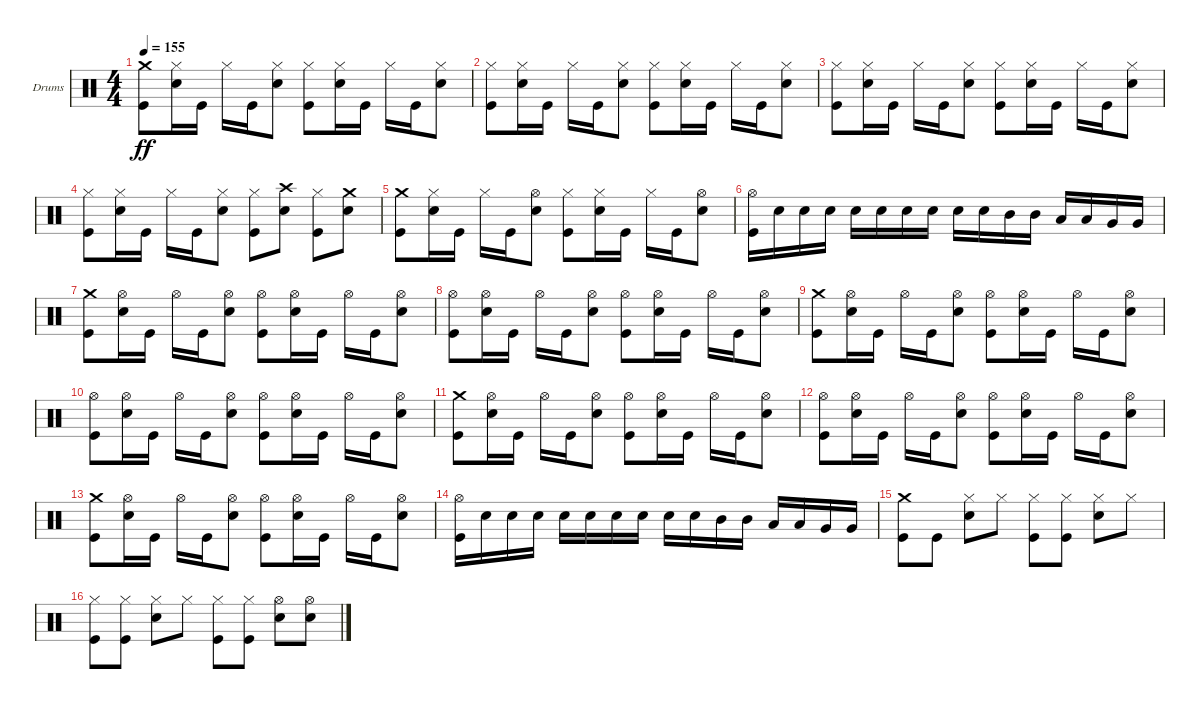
\defaultSystemsLayout 4
\bracketExtendMode groupsimilarinstruments
\firstSystemTrackNameOrientation horizontal
\otherSystemsTrackNameOrientation horizontal
\track ("Drums - Brandon Barnes" "Drums") {instrument percussion}
\staff {score}
\articulation defaults
\ts (4 4)
\tempo 155
\clef neutral
\scale
0.333333
\ks c
("Kick (hit)" "Crash medium (hit)").8{dy ff} ("Snare (hit) 2" "Hi-Hat (closed)").16 "Kick (hit)".16 "Hi-Hat (closed)".16 "Kick (hit)".16 ("Snare (hit) 2" "Hi-Hat (closed)").8 ("Kick (hit)" "Hi-Hat (closed)").8 ("Snare (hit) 2" "Hi-Hat (closed)").16 "Kick (hit)".16 "Hi-Hat (closed)".16 "Kick (hit)".16 ("Snare (hit) 2" "Hi-Hat (closed)").8 |
\scale
0.333333 ("Kick (hit)" "Hi-Hat (closed)").8 ("Snare (hit) 2" "Hi-Hat (closed)").16 "Kick (hit)".16 "Hi-Hat (closed)".16 "Kick (hit)".16 ("Snare (hit) 2" "Hi-Hat (closed)").8 ("Kick (hit)" "Hi-Hat (closed)").8 ("Snare (hit) 2" "Hi-Hat (closed)").16 "Kick (hit)".16 "Hi-Hat (closed)".16 "Kick (hit)".16 ("Snare (hit) 2" "Hi-Hat (closed)").8 |
\scale
0.333333 ("Kick (hit)" "Hi-Hat (closed)").8 ("Snare (hit) 2" "Hi-Hat (closed)").16 "Kick (hit)".16 "Hi-Hat (closed)".16 "Kick (hit)".16 ("Snare (hit) 2" "Hi-Hat (closed)").8 ("Kick (hit)" "Hi-Hat (closed)").8 ("Snare (hit) 2" "Hi-Hat (closed)").16 "Kick (hit)".16 "Hi-Hat (closed)".16 "Kick (hit)".16 ("Snare (hit) 2" "Hi-Hat (closed)").8 |
\scale
0.333333 ("Kick (hit)" "Hi-Hat (closed)").8 ("Snare (hit) 2" "Hi-Hat (closed)").16 "Kick (hit)".16 "Hi-Hat (closed)".16 "Kick (hit)".16 ("Snare (hit) 2" "Hi-Hat (closed)").8 ("Kick (hit)" "Hi-Hat (closed)").8 ("Snare (hit) 2" "Crash high (hit)").8 ("Kick (hit)" "Hi-Hat (closed)").8 ("Snare (hit) 2" "Crash medium (hit)").8 |
\scale
0.333333 ("Kick (hit)" "Crash medium (hit)").8 ("Snare (hit) 2" "Hi-Hat (closed)").16 "Kick (hit)".16 "Hi-Hat (closed)".16 "Kick (hit)".16 ("Snare (hit) 2" "Hi-Hat (open)").8 ("Kick (hit)" "Hi-Hat (closed)").8 ("Snare (hit) 2" "Hi-Hat (closed)").16 "Kick (hit)".16 "Hi-Hat (closed)".16 "Kick (hit)".16 ("Snare (hit) 2" "Hi-Hat (open)").8 |
\scale
0.333333 ("Kick (hit)" "Hi-Hat (open)").16 "Snare (hit) 2".16 "Snare (hit) 2".16 "Snare (hit) 2".16 "Snare (hit) 2".16 "Snare (hit) 2".16 "Snare (hit) 2".16 "Snare (hit) 2".16 "Snare (hit) 2".16 "Snare (hit) 2".16 "Mid Tom (hit)".16 "Mid Tom (hit)".16 "Low Tom (hit)".16 "Low Tom (hit)".16 "Very Low Tom (hit)".16 "Very Low Tom (hit)".16 |
\scale
0.333333 ("Kick (hit)" "Crash medium (hit)").8 ("Snare (hit) 2" "Hi-Hat (open)").16 "Kick (hit)".16 "Hi-Hat (open)".16 "Kick (hit)".16 ("Snare (hit) 2" "Hi-Hat (open)").8 ("Kick (hit)" "Hi-Hat (open)").8 ("Snare (hit) 2" "Hi-Hat (open)").16 "Kick (hit)".16 "Hi-Hat (open)".16 "Kick (hit)".16 ("Snare (hit) 2" "Hi-Hat (open)").8 |
\scale
0.333333 ("Kick (hit)" "Hi-Hat (open)").8 ("Snare (hit) 2" "Hi-Hat (open)").16 "Kick (hit)".16 "Hi-Hat (open)".16 "Kick (hit)".16 ("Snare (hit) 2" "Hi-Hat (open)").8 ("Kick (hit)" "Hi-Hat (open)").8 ("Snare (hit) 2" "Hi-Hat (open)").16 "Kick (hit)".16 "Hi-Hat (open)".16 "Kick (hit)".16 ("Snare (hit) 2" "Hi-Hat (open)").8 |
\scale
0.333333 ("Kick (hit)" "Crash medium (hit)").8 ("Snare (hit) 2" "Hi-Hat (open)").16 "Kick (hit)".16 "Hi-Hat (open)".16 "Kick (hit)".16 ("Snare (hit) 2" "Hi-Hat (open)").8 ("Kick (hit)" "Hi-Hat (open)").8 ("Snare (hit) 2" "Hi-Hat (open)").16 "Kick (hit)".16 "Hi-Hat (open)".16 "Kick (hit)".16 ("Snare (hit) 2" "Hi-Hat (open)").8 |
\scale
0.333333 ("Kick (hit)" "Hi-Hat (open)").8 ("Snare (hit) 2" "Hi-Hat (open)").16 "Kick (hit)".16 "Hi-Hat (open)".16 "Kick (hit)".16 ("Snare (hit) 2" "Hi-Hat (open)").8 ("Kick (hit)" "Hi-Hat (open)").8 ("Snare (hit) 2" "Hi-Hat (open)").16 "Kick (hit)".16 "Hi-Hat (open)".16 "Kick (hit)".16 ("Snare (hit) 2" "Hi-Hat (open)").8 |
\scale
0.333333 ("Kick (hit)" "Crash medium (hit)").8 ("Snare (hit) 2" "Hi-Hat (open)").16 "Kick (hit)".16 "Hi-Hat (open)".16 "Kick (hit)".16 ("Snare (hit) 2" "Hi-Hat (open)").8 ("Kick (hit)" "Hi-Hat (open)").8 ("Snare (hit) 2" "Hi-Hat (open)").16 "Kick (hit)".16 "Hi-Hat (open)".16 "Kick (hit)".16 ("Snare (hit) 2" "Hi-Hat (open)").8 |
\scale
0.333333 ("Kick (hit)" "Hi-Hat (open)").8 ("Snare (hit) 2" "Hi-Hat (open)").16 "Kick (hit)".16 "Hi-Hat (open)".16 "Kick (hit)".16 ("Snare (hit) 2" "Hi-Hat (open)").8 ("Kick (hit)" "Hi-Hat (open)").8 ("Snare (hit) 2" "Hi-Hat (open)").16 "Kick (hit)".16 "Hi-Hat (open)".16 "Kick (hit)".16 ("Snare (hit) 2" "Hi-Hat (open)").8 |
\scale
0.333333 ("Kick (hit)" "Crash medium (hit)").8 ("Snare (hit) 2" "Hi-Hat (open)").16 "Kick (hit)".16 "Hi-Hat (open)".16 "Kick (hit)".16 ("Snare (hit) 2" "Hi-Hat (open)").8 ("Kick (hit)" "Hi-Hat (open)").8 ("Snare (hit) 2" "Hi-Hat (open)").16 "Kick (hit)".16 "Hi-Hat (open)".16 "Kick (hit)".16 ("Snare (hit) 2" "Hi-Hat (open)").8 |
\scale
0.333333 ("Kick (hit)" "Hi-Hat (open)").16 "Snare (hit) 2".16 "Snare (hit) 2".16 "Snare (hit) 2".16 "Snare (hit) 2".16 "Snare (hit) 2".16 "Snare (hit) 2".16 "Snare (hit) 2".16 "Snare (hit) 2".16 "Snare (hit) 2".16 "Mid Tom (hit)".16 "Mid Tom (hit)".16 "Low Tom (hit)".16 "Low Tom (hit)".16 "Very Low Tom (hit)".16 "Very Low Tom (hit)".16 |
\scale
0.333333 ("Kick (hit)" "Crash medium (hit)").8 "Kick (hit)".8 ("Snare (hit) 2" "Hi-Hat (closed)").8 "Hi-Hat (closed)".8 ("Kick (hit)" "Hi-Hat (closed)").8 ("Hi-Hat (closed)" "Kick (hit)").8 ("Snare (hit) 2" "Hi-Hat (closed)").8 "Hi-Hat (closed)".8 |
\scale
0.333333 ("Kick (hit)" "Hi-Hat (closed)").8 ("Hi-Hat (closed)" "Kick (hit)").8 ("Snare (hit) 2" "Hi-Hat (closed)").8 "Hi-Hat (closed)".8 ("Kick (hit)" "Hi-Hat (closed)").8 ("Hi-Hat (closed)" "Kick (hit)").8 ("Snare (hit) 2" "Hi-Hat (open)").8 ("Snare (hit) 2" "Hi-Hat (open)").8
